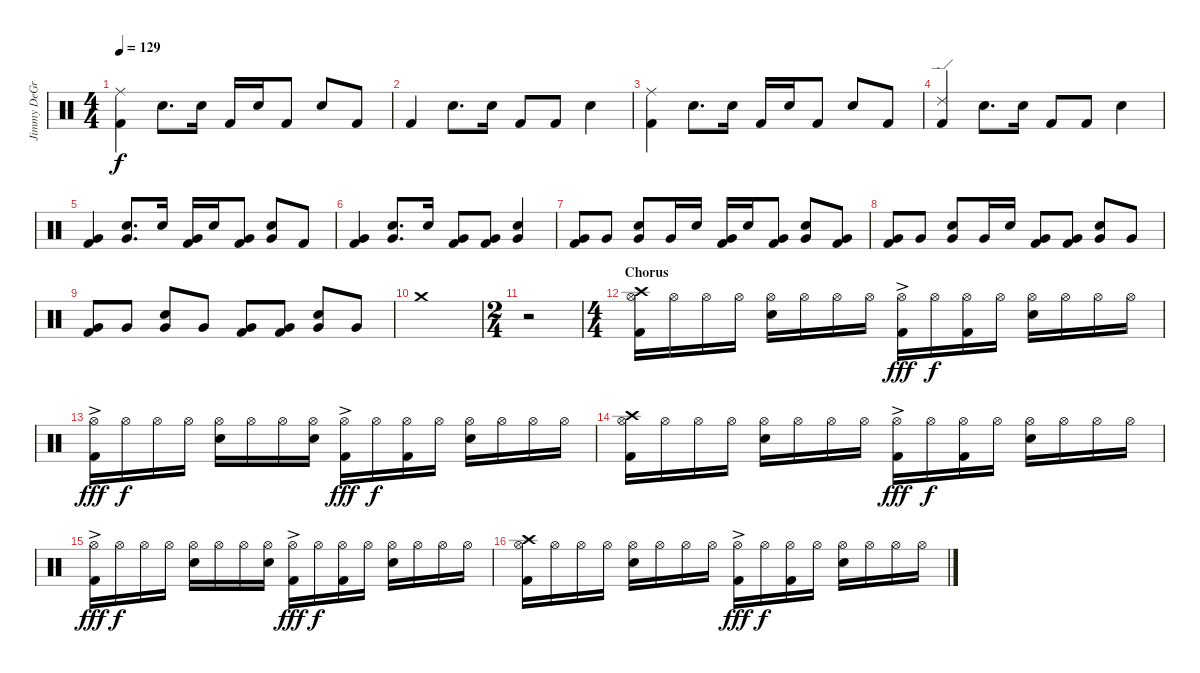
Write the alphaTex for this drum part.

\track ("Jimmy DeGrasso (Drums)" "Jimmy DeGr") {instrument percussion}
\staff {score}
\articulation defaults
\ts (4 4)
\tempo 129
\clef neutral
\ks c
("Ride (middle)" "Kick (hit) 2").4{dy f} "Electric Snare (hit)".8{d} "Electric Snare (hit)".16 "Kick (hit) 2".16 "Electric Snare (hit)".16 "Kick (hit) 2".8 "Electric Snare (hit)".8 "Kick (hit) 2".8 |
"Kick (hit) 2".4 "Electric Snare (hit)".8{d} "Electric Snare (hit)".16 "Kick (hit) 2".8 "Kick (hit) 2".8 "Electric Snare (hit)".4 |
("Ride (middle)" "Kick (hit) 2").4 "Electric Snare (hit)".8{d} "Electric Snare (hit)".16 "Kick (hit) 2".16 "Electric Snare (hit)".16 "Kick (hit) 2".8 "Electric Snare (hit)".8 "Kick (hit) 2".8 |
("Ride (edge) 2" "Kick (hit) 2").4 "Electric Snare (hit)".8{d} "Electric Snare (hit)".16 "Kick (hit) 2".8 "Kick (hit) 2".8 "Electric Snare (hit)".4 |
("Very Low Tom (hit)" "Kick (hit) 2").4{volume 11} ("Very Low Tom (hit)" "Electric Snare (hit)").8{d} "Electric Snare (hit)".16 ("Very Low Tom (hit)" "Kick (hit) 2").16 "Electric Snare (hit)".16 ("Very Low Tom (hit)" "Kick (hit) 2").8 ("Very Low Tom (hit)" "Electric Snare (hit)").8 "Kick (hit) 2".8 |
("Very Low Tom (hit)" "Kick (hit) 2").4 ("Very Low Tom (hit)" "Electric Snare (hit)").8{d} "Electric Snare (hit)".16 ("Very Low Tom (hit)" "Kick (hit) 2").8 ("Very Low Tom (hit)" "Kick (hit) 2").8 ("Very Low Tom (hit)" "Electric Snare (hit)").4 |
("Very Low Tom (hit)" "Kick (hit) 2").8 "Very Low Tom (hit)".8 ("Very Low Tom (hit)" "Electric Snare (hit)").8 "Very Low Tom (hit)".16 "Electric Snare (hit)".16 ("Very Low Tom (hit)" "Kick (hit) 2").16 "Electric Snare (hit)".16 ("Very Low Tom (hit)" "Kick (hit) 2").8 ("Very Low Tom (hit)" "Electric Snare (hit)").8 ("Very Low Tom (hit)" "Kick (hit) 2").8 |
("Very Low Tom (hit)" "Kick (hit) 2").8 "Very Low Tom (hit)".8 ("Very Low Tom (hit)" "Electric Snare (hit)").8 "Very Low Tom (hit)".16 "Electric Snare (hit)".16 ("Very Low Tom (hit)" "Kick (hit) 2").8 ("Very Low Tom (hit)" "Kick (hit) 2").8 ("Very Low Tom (hit)" "Electric Snare (hit)").8 "Very Low Tom (hit)".8 |
("Very Low Tom (hit)" "Kick (hit) 2").8 "Very Low Tom (hit)".8 ("Very Low Tom (hit)" "Electric Snare (hit)").8 "Very Low Tom (hit)".8 ("Very Low Tom (hit)" "Kick (hit) 2").8 ("Very Low Tom (hit)" "Kick (hit) 2").8 ("Very Low Tom (hit)" "Electric Snare (hit)").8 "Very Low Tom (hit)".8 |
"Crash medium (hit)".1 |
\ts (2 4)
r.2 |
\ts (4 4)
\section ("" "Chorus")
("Crash high (hit)" "Hi-Hat (open)" "Kick (hit) 2").16{volume 13} "Hi-Hat (open)".16 "Hi-Hat (open)".16 "Hi-Hat (open)".16 ("Hi-Hat (open)" "Electric Snare (hit)").16 "Hi-Hat (open)".16 "Hi-Hat (open)".16 "Hi-Hat (open)".16 ("Hi-Hat (open)"{ac} "Kick (hit) 2").16{dy fff} "Hi-Hat (open)".16{dy f} ("Hi-Hat (open)" "Kick (hit) 2").16 "Hi-Hat (open)".16 ("Hi-Hat (open)" "Electric Snare (hit)").16 "Hi-Hat (open)".16 "Hi-Hat (open)".16 "Hi-Hat (open)".16 |
("Hi-Hat (open)"{ac} "Kick (hit) 2").16{dy fff} "Hi-Hat (open)".16{dy f} "Hi-Hat (open)".16 "Hi-Hat (open)".16 ("Hi-Hat (open)" "Electric Snare (hit)").16 "Hi-Hat (open)".16 "Hi-Hat (open)".16 ("Hi-Hat (open)" "Electric Snare (hit)").16 ("Hi-Hat (open)"{ac} "Kick (hit) 2").16{dy fff} "Hi-Hat (open)".16{dy f} ("Hi-Hat (open)" "Kick (hit) 2").16 "Hi-Hat (open)".16 ("Hi-Hat (open)" "Electric Snare (hit)").16 "Hi-Hat (open)".16 "Hi-Hat (open)".16 "Hi-Hat (open)".16 |
("Crash high (hit)" "Hi-Hat (open)" "Kick (hit) 2").16 "Hi-Hat (open)".16 "Hi-Hat (open)".16 "Hi-Hat (open)".16 ("Hi-Hat (open)" "Electric Snare (hit)").16 "Hi-Hat (open)".16 "Hi-Hat (open)".16 "Hi-Hat (open)".16 ("Hi-Hat (open)"{ac} "Kick (hit) 2").16{dy fff} "Hi-Hat (open)".16{dy f} ("Hi-Hat (open)" "Kick (hit) 2").16 "Hi-Hat (open)".16 ("Hi-Hat (open)" "Electric Snare (hit)").16 "Hi-Hat (open)".16 "Hi-Hat (open)".16 "Hi-Hat (open)".16 |
("Hi-Hat (open)"{ac} "Kick (hit) 2").16{dy fff} "Hi-Hat (open)".16{dy f} "Hi-Hat (open)".16 "Hi-Hat (open)".16 ("Hi-Hat (open)" "Electric Snare (hit)").16 "Hi-Hat (open)".16 "Hi-Hat (open)".16 ("Hi-Hat (open)" "Electric Snare (hit)").16 ("Hi-Hat (open)"{ac} "Kick (hit) 2").16{dy fff} "Hi-Hat (open)".16{dy f} ("Hi-Hat (open)" "Kick (hit) 2").16 "Hi-Hat (open)".16 ("Hi-Hat (open)" "Electric Snare (hit)").16 "Hi-Hat (open)".16 "Hi-Hat (open)".16 "Hi-Hat (open)".16 |
("Crash high (hit)" "Hi-Hat (open)" "Kick (hit) 2").16 "Hi-Hat (open)".16 "Hi-Hat (open)".16 "Hi-Hat (open)".16 ("Hi-Hat (open)" "Electric Snare (hit)").16 "Hi-Hat (open)".16 "Hi-Hat (open)".16 "Hi-Hat (open)".16 ("Hi-Hat (open)"{ac} "Kick (hit) 2").16{dy fff} "Hi-Hat (open)".16{dy f} ("Hi-Hat (open)" "Kick (hit) 2").16 "Hi-Hat (open)".16 ("Hi-Hat (open)" "Electric Snare (hit)").16 "Hi-Hat (open)".16 "Hi-Hat (open)".16 "Hi-Hat (open)".16
